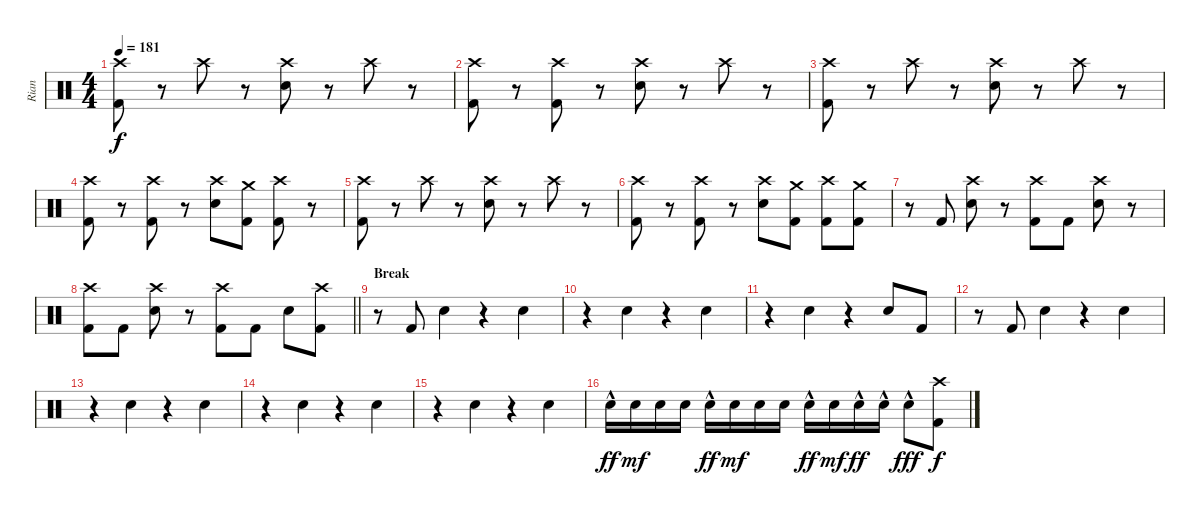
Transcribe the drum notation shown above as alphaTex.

\track ("Rian" "Rian") {instrument percussion bank 255}
\staff {score}
\articulation defaults
\ts (4 4)
\tempo 181
\clef neutral
\ks c
("Crash high (hit)" "Kick (hit) 2").8{dy f} r.8 "Crash high (hit)".8 r.8 ("Crash high (hit)" "Electric Snare (hit)").8 r.8 "Crash high (hit)".8 r.8 |
("Crash high (hit)" "Kick (hit) 2").8 r.8 ("Crash high (hit)" "Kick (hit) 2").8 r.8 ("Crash high (hit)" "Electric Snare (hit)").8 r.8 "Crash high (hit)".8 r.8 |
("Crash high (hit)" "Kick (hit) 2").8 r.8 "Crash high (hit)".8 r.8 ("Crash high (hit)" "Electric Snare (hit)").8 r.8 "Crash high (hit)".8 r.8 |
("Crash high (hit)" "Kick (hit) 2").8 r.8 ("Crash high (hit)" "Kick (hit) 2").8 r.8 ("Crash high (hit)" "Electric Snare (hit)").8 ("Crash medium (hit)" "Kick (hit) 2").8 ("Crash high (hit)" "Kick (hit) 2").8 r.8 |
("Crash high (hit)" "Kick (hit) 2").8 r.8 "Crash high (hit)".8 r.8 ("Crash high (hit)" "Electric Snare (hit)").8 r.8 "Crash high (hit)".8 r.8 |
("Crash high (hit)" "Kick (hit) 2").8 r.8 ("Crash high (hit)" "Kick (hit) 2").8 r.8 ("Crash high (hit)" "Electric Snare (hit)").8 ("Crash medium (hit)" "Kick (hit) 2").8 ("Crash high (hit)" "Kick (hit) 2").8 ("Crash medium (hit)" "Kick (hit) 2").8 |
r.8 "Kick (hit) 2".8 ("Crash high (hit)" "Electric Snare (hit)").8 r.8 ("Crash high (hit)" "Kick (hit) 2").8 "Kick (hit) 2".8 ("Crash high (hit)" "Electric Snare (hit)").8 r.8 |
\barLineRight lightlight
("Crash high (hit)" "Kick (hit) 2").8 "Kick (hit) 2".8 ("Crash high (hit)" "Electric Snare (hit)").8 r.8 ("Crash high (hit)" "Kick (hit) 2").8 "Kick (hit) 2".8 "Electric Snare (hit)".8 ("Crash high (hit)" "Kick (hit) 2").8 |
\section ("" "Break")
r.8 "Kick (hit) 2".8 "Electric Snare (hit)".4 r.4 "Electric Snare (hit)".4 |
r.4 "Electric Snare (hit)".4 r.4 "Electric Snare (hit)".4 |
r.4 "Electric Snare (hit)".4 r.4 "Electric Snare (hit)".8 "Kick (hit) 2".8 |
r.8 "Kick (hit) 2".8 "Electric Snare (hit)".4 r.4 "Electric Snare (hit)".4 |
r.4 "Electric Snare (hit)".4 r.4 "Electric Snare (hit)".4 |
r.4 "Electric Snare (hit)".4 r.4 "Electric Snare (hit)".4 |
r.4 "Electric Snare (hit)".4 r.4 "Electric Snare (hit)".4 |
"Electric Snare (hit)"{hac}.16{dy ff} "Electric Snare (hit)".16{dy mf} "Electric Snare (hit)".16 "Electric Snare (hit)".16 "Electric Snare (hit)"{hac}.16{dy ff} "Electric Snare (hit)".16{dy mf} "Electric Snare (hit)".16 "Electric Snare (hit)".16 "Electric Snare (hit)"{hac}.16{dy ff} "Electric Snare (hit)".16{dy mf} "Electric Snare (hit)"{hac}.16{dy ff} "Electric Snare (hit)"{hac}.16 "Electric Snare (hit)"{hac}.8{dy fff} ("Crash high (hit)" "Kick (hit) 2").8{dy f}
